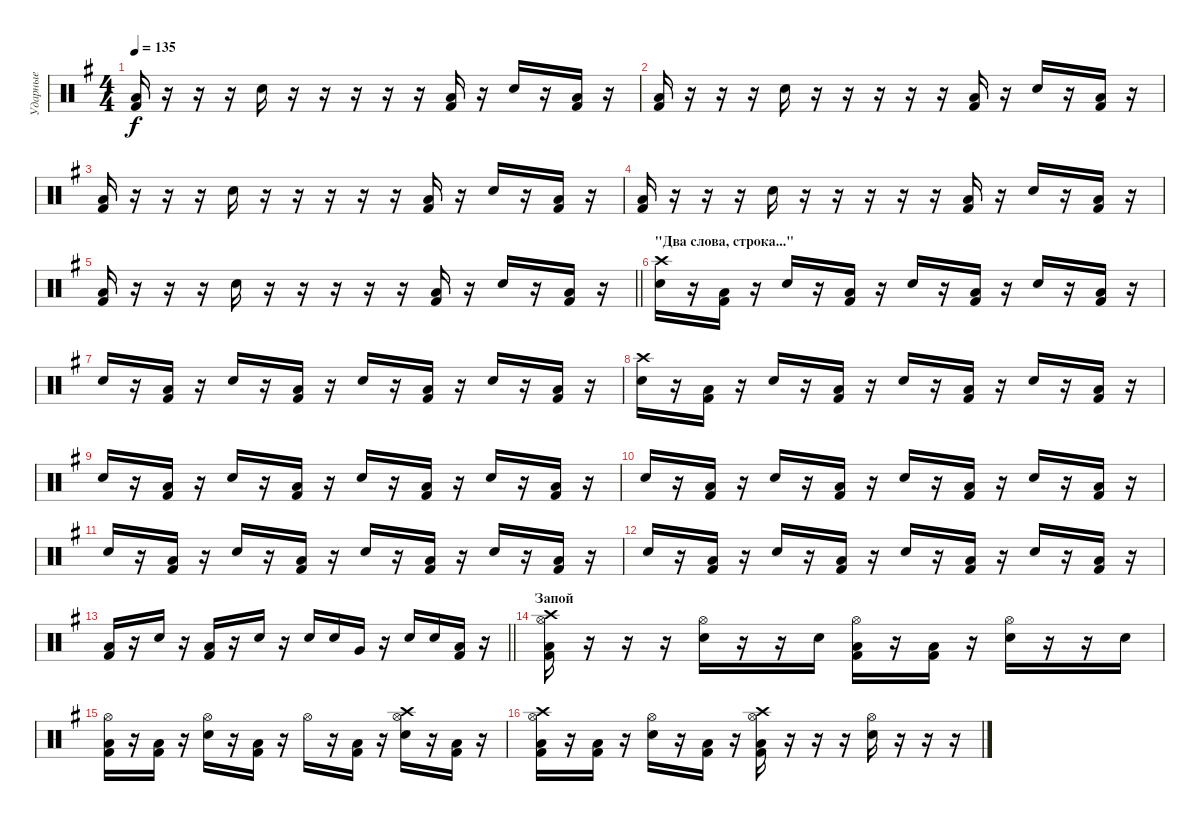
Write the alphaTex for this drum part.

\track ("Ударные" "Ударные") {instrument percussion}
\staff {score}
\articulation defaults
\ts (4 4)
\tempo 135
\clef neutral
\ks eminor
("Low Floor Tom (hit)" "Kick (hit) 2").16{dy f} r.16 r.16 r.16 "Electric Snare (hit)".16 r.16 r.16 r.16 r.16 r.16 ("Low Floor Tom (hit)" "Kick (hit) 2").16 r.16 "Electric Snare (hit)".16 r.16 ("Low Floor Tom (hit)" "Kick (hit) 2").16 r.16 |
("Low Floor Tom (hit)" "Kick (hit) 2").16 r.16 r.16 r.16 "Electric Snare (hit)".16 r.16 r.16 r.16 r.16 r.16 ("Low Floor Tom (hit)" "Kick (hit) 2").16 r.16 "Electric Snare (hit)".16 r.16 ("Low Floor Tom (hit)" "Kick (hit) 2").16 r.16 |
("Low Floor Tom (hit)" "Kick (hit) 2").16 r.16 r.16 r.16 "Electric Snare (hit)".16 r.16 r.16 r.16 r.16 r.16 ("Low Floor Tom (hit)" "Kick (hit) 2").16 r.16 "Electric Snare (hit)".16 r.16 ("Low Floor Tom (hit)" "Kick (hit) 2").16 r.16 |
("Low Floor Tom (hit)" "Kick (hit) 2").16 r.16 r.16 r.16 "Electric Snare (hit)".16 r.16 r.16 r.16 r.16 r.16 ("Low Floor Tom (hit)" "Kick (hit) 2").16 r.16 "Electric Snare (hit)".16 r.16 ("Low Floor Tom (hit)" "Kick (hit) 2").16 r.16 |
\barLineRight lightlight
("Low Floor Tom (hit)" "Kick (hit) 2").16 r.16 r.16 r.16 "Electric Snare (hit)".16 r.16 r.16 r.16 r.16 r.16 ("Low Floor Tom (hit)" "Kick (hit) 2").16 r.16 "Electric Snare (hit)".16 r.16 ("Low Floor Tom (hit)" "Kick (hit) 2").16 r.16 |
\section ("" "\"Два слова, строка...\"")
("Crash high (hit)" "Electric Snare (hit)").16 r.16 ("Low Floor Tom (hit)" "Kick (hit) 2").16 r.16 "Electric Snare (hit)".16 r.16 ("Low Floor Tom (hit)" "Kick (hit) 2").16 r.16 "Electric Snare (hit)".16 r.16 ("Low Floor Tom (hit)" "Kick (hit) 2").16 r.16 "Electric Snare (hit)".16 r.16 ("Low Floor Tom (hit)" "Kick (hit) 2").16 r.16 |
"Electric Snare (hit)".16 r.16 ("Low Floor Tom (hit)" "Kick (hit) 2").16 r.16 "Electric Snare (hit)".16 r.16 ("Low Floor Tom (hit)" "Kick (hit) 2").16 r.16 "Electric Snare (hit)".16 r.16 ("Low Floor Tom (hit)" "Kick (hit) 2").16 r.16 "Electric Snare (hit)".16 r.16 ("Low Floor Tom (hit)" "Kick (hit) 2").16 r.16 |
("Crash high (hit)" "Electric Snare (hit)").16 r.16 ("Low Floor Tom (hit)" "Kick (hit) 2").16 r.16 "Electric Snare (hit)".16 r.16 ("Low Floor Tom (hit)" "Kick (hit) 2").16 r.16 "Electric Snare (hit)".16 r.16 ("Low Floor Tom (hit)" "Kick (hit) 2").16 r.16 "Electric Snare (hit)".16 r.16 ("Low Floor Tom (hit)" "Kick (hit) 2").16 r.16 |
"Electric Snare (hit)".16 r.16 ("Low Floor Tom (hit)" "Kick (hit) 2").16 r.16 "Electric Snare (hit)".16 r.16 ("Low Floor Tom (hit)" "Kick (hit) 2").16 r.16 "Electric Snare (hit)".16 r.16 ("Low Floor Tom (hit)" "Kick (hit) 2").16 r.16 "Electric Snare (hit)".16 r.16 ("Low Floor Tom (hit)" "Kick (hit) 2").16 r.16 |
"Electric Snare (hit)".16 r.16 ("Low Floor Tom (hit)" "Kick (hit) 2").16 r.16 "Electric Snare (hit)".16 r.16 ("Low Floor Tom (hit)" "Kick (hit) 2").16 r.16 "Electric Snare (hit)".16 r.16 ("Low Floor Tom (hit)" "Kick (hit) 2").16 r.16 "Electric Snare (hit)".16 r.16 ("Low Floor Tom (hit)" "Kick (hit) 2").16 r.16 |
"Electric Snare (hit)".16 r.16 ("Low Floor Tom (hit)" "Kick (hit) 2").16 r.16 "Electric Snare (hit)".16 r.16 ("Low Floor Tom (hit)" "Kick (hit) 2").16 r.16 "Electric Snare (hit)".16 r.16 ("Low Floor Tom (hit)" "Kick (hit) 2").16 r.16 "Electric Snare (hit)".16 r.16 ("Low Floor Tom (hit)" "Kick (hit) 2").16 r.16 |
"Electric Snare (hit)".16 r.16 ("Low Floor Tom (hit)" "Kick (hit) 2").16 r.16 "Electric Snare (hit)".16 r.16 ("Low Floor Tom (hit)" "Kick (hit) 2").16 r.16 "Electric Snare (hit)".16 r.16 ("Low Floor Tom (hit)" "Kick (hit) 2").16 r.16 "Electric Snare (hit)".16 r.16 ("Low Floor Tom (hit)" "Kick (hit) 2").16 r.16 |
\barLineRight lightlight
("Low Floor Tom (hit)" "Kick (hit) 2").16 r.16 "Electric Snare (hit)".16 r.16 ("Low Floor Tom (hit)" "Kick (hit) 2").16 r.16 "Electric Snare (hit)".16 r.16 "Electric Snare (hit)".16 "Electric Snare (hit)".16 "Very Low Tom (hit)".16 r.16 "Electric Snare (hit)".16 "Electric Snare (hit)".16 ("Low Floor Tom (hit)" "Kick (hit) 2").16 r.16 |
\section ("" "Запой")
("Crash high (hit)" "Hi-Hat (open)" "Low Floor Tom (hit)" "Kick (hit) 2").16 r.16 r.16 r.16 ("Hi-Hat (open)" "Electric Snare (hit)").16 r.16 r.16 "Electric Snare (hit)".16 ("Hi-Hat (open)" "Low Floor Tom (hit)" "Kick (hit) 2").16 r.16 ("Low Floor Tom (hit)" "Kick (hit) 2").16 r.16 ("Hi-Hat (open)" "Electric Snare (hit)").16 r.16 r.16 "Electric Snare (hit)".16 |
("Hi-Hat (open)" "Low Floor Tom (hit)" "Kick (hit) 2").16 r.16 ("Low Floor Tom (hit)" "Kick (hit) 2").16 r.16 ("Hi-Hat (open)" "Electric Snare (hit)").16 r.16 ("Low Floor Tom (hit)" "Kick (hit) 2").16 r.16 "Hi-Hat (open)".16 r.16 ("Low Floor Tom (hit)" "Kick (hit) 2").16 r.16 ("Crash high (hit)" "Hi-Hat (open)" "Electric Snare (hit)").16 r.16 ("Low Floor Tom (hit)" "Kick (hit) 2").16 r.16 |
("Crash high (hit)" "Hi-Hat (open)" "Low Floor Tom (hit)" "Kick (hit) 2").16 r.16 ("Low Floor Tom (hit)" "Kick (hit) 2").16 r.16 ("Hi-Hat (open)" "Electric Snare (hit)").16 r.16 ("Low Floor Tom (hit)" "Kick (hit) 2").16 r.16 ("Crash high (hit)" "Hi-Hat (open)" "Low Floor Tom (hit)" "Kick (hit) 2").16 r.16 r.16 r.16 ("Hi-Hat (open)" "Electric Snare (hit)").16 r.16 r.16 r.16
